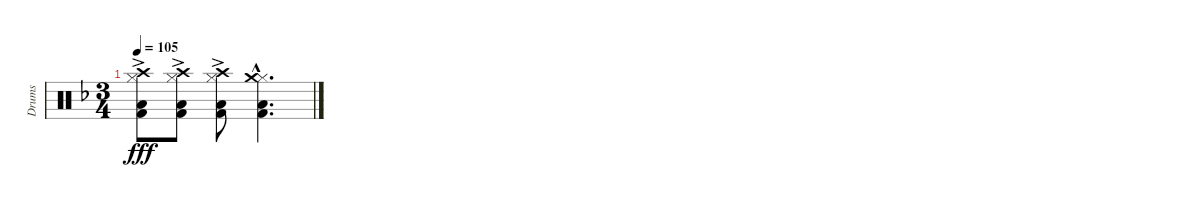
\track ("Drums" "Drums") {instrument percussion}
\staff {score}
\articulation defaults
\ts (3 4)
\tempo 105
\clef neutral
\ks f
("Hi-Hat (closed)" "Crash high (hit)" "Low Floor Tom (hit)" "Kick (hit) 2"{ac}).8{dy fff} ("Hi-Hat (closed)" "Crash high (hit)" "Low Floor Tom (hit)" "Kick (hit) 2"{ac}).8 ("Hi-Hat (closed)" "Crash high (hit)" "Low Floor Tom (hit)" "Kick (hit) 2"{ac}).8 ("Hi-Hat (closed)"{hac} "Crash medium (hit)"{hac} "Low Floor Tom (hit)"{hac} "Kick (hit) 2"{hac}).4{d}
